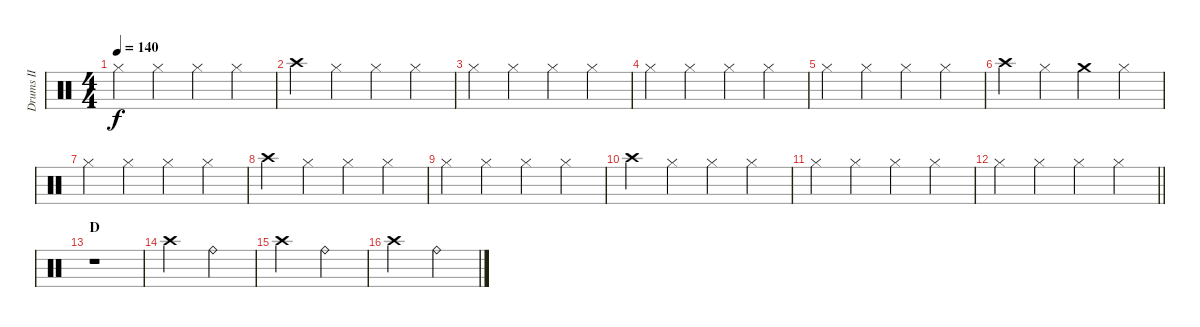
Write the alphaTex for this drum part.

\track ("Drums II" "Drums II") {instrument percussion}
\staff {score}
\articulation defaults
\ts (4 4)
\tempo 140
\clef neutral
\ks c "Hi-Hat (closed)".4{dy f} "Hi-Hat (closed)".4 "Hi-Hat (closed)".4 "Hi-Hat (closed)".4
|
"Crash high (hit)".4 "Hi-Hat (closed)".4 "Hi-Hat (closed)".4 "Hi-Hat (closed)".4 |
"Hi-Hat (closed)".4 "Hi-Hat (closed)".4 "Hi-Hat (closed)".4 "Hi-Hat (closed)".4 |
"Hi-Hat (closed)".4 "Hi-Hat (closed)".4 "Hi-Hat (closed)".4 "Hi-Hat (closed)".4 |
"Hi-Hat (closed)".4 "Hi-Hat (closed)".4 "Hi-Hat (closed)".4 "Hi-Hat (closed)".4 |
"Crash high (hit)".4 "Hi-Hat (closed)".4 "Crash medium (hit)".4 "Hi-Hat (closed)".4 |
"Hi-Hat (closed)".4 "Hi-Hat (closed)".4 "Hi-Hat (closed)".4 "Hi-Hat (closed)".4 |
"Crash high (hit)".4 "Hi-Hat (closed)".4 "Hi-Hat (closed)".4 "Hi-Hat (closed)".4 |
"Hi-Hat (closed)".4 "Hi-Hat (closed)".4 "Hi-Hat (closed)".4 "Hi-Hat (closed)".4 |
"Crash high (hit)".4 "Hi-Hat (closed)".4 "Hi-Hat (closed)".4 "Hi-Hat (closed)".4 |
"Hi-Hat (closed)".4 "Hi-Hat (closed)".4 "Hi-Hat (closed)".4 "Hi-Hat (closed)".4 |
\barLineRight lightlight "Hi-Hat (closed)".4 "Hi-Hat (closed)".4 "Hi-Hat (closed)".4 "Hi-Hat (closed)".4
|
\section ("" "D")
r.1 |
"Crash high (hit)".2 "Ride (bell)".2 |
"Crash high (hit)".2 "Ride (bell)".2 |
"Crash high (hit)".2 "Ride (bell)".2
